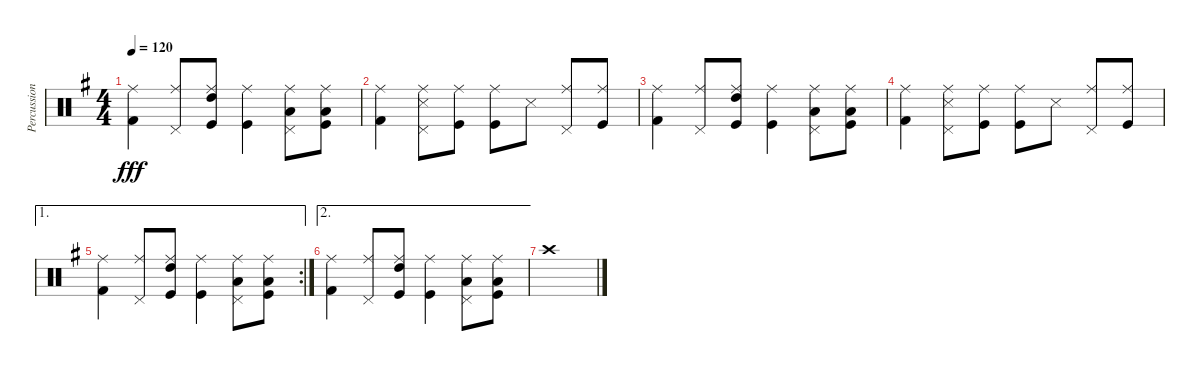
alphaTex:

\track ("Percussions" "Percussion") {instrument percussion}
\staff {score}
\articulation defaults
\ts (4 4)
\tempo 120
\clef neutral
\ks g
("Ride (middle)" "Kick (hit) 2").4{dy fff} ("Ride (middle)" "Pedal Hi-Hat (hit)").8 ("Ride (middle)" "Kick (hit)" "High Tom (hit)").8 ("Ride (middle)" "Kick (hit)").4 ("Ride (middle)" "Low Tom (hit)" "Pedal Hi-Hat (hit)").8 ("Ride (middle)" "Kick (hit)" "Low Tom (hit)").8 |
("Ride (middle)" "Kick (hit) 2").4 ("Ride (middle)" "Pedal Hi-Hat (hit)" "Snare (side stick) 3").8 ("Ride (middle)" "Kick (hit)").8 ("Ride (middle)" "Kick (hit)").8 "Snare (side stick) 3".8 ("Ride (middle)" "Pedal Hi-Hat (hit)").8 ("Ride (middle)" "Kick (hit)").8 |
("Ride (middle)" "Kick (hit) 2").4 ("Ride (middle)" "Pedal Hi-Hat (hit)").8 ("Ride (middle)" "Kick (hit)" "High Tom (hit)").8 ("Ride (middle)" "Kick (hit)").4 ("Ride (middle)" "Low Tom (hit)" "Pedal Hi-Hat (hit)").8 ("Ride (middle)" "Kick (hit)" "Low Tom (hit)").8 |
("Ride (middle)" "Kick (hit) 2").4 ("Ride (middle)" "Pedal Hi-Hat (hit)" "Snare (side stick) 3").8 ("Ride (middle)" "Kick (hit)").8 ("Ride (middle)" "Kick (hit)").8 "Snare (side stick) 3".8 ("Ride (middle)" "Pedal Hi-Hat (hit)").8 ("Ride (middle)" "Kick (hit)").8 |
\ae 1
\rc 2
("Ride (middle)" "Kick (hit) 2").4 ("Ride (middle)" "Pedal Hi-Hat (hit)").8 ("Ride (middle)" "Kick (hit)" "High Tom (hit)").8 ("Ride (middle)" "Kick (hit)").4 ("Ride (middle)" "Low Tom (hit)" "Pedal Hi-Hat (hit)").8 ("Ride (middle)" "Kick (hit)" "Low Tom (hit)").8 |
\ae 2
("Ride (middle)" "Kick (hit) 2").4 ("Ride (middle)" "Pedal Hi-Hat (hit)").8 ("Ride (middle)" "Kick (hit)" "High Tom (hit)").8 ("Ride (middle)" "Kick (hit)").4 ("Ride (middle)" "Low Tom (hit)" "Pedal Hi-Hat (hit)").8 ("Ride (middle)" "Kick (hit)" "Low Tom (hit)").8 |
"Crash high (hit)".1
